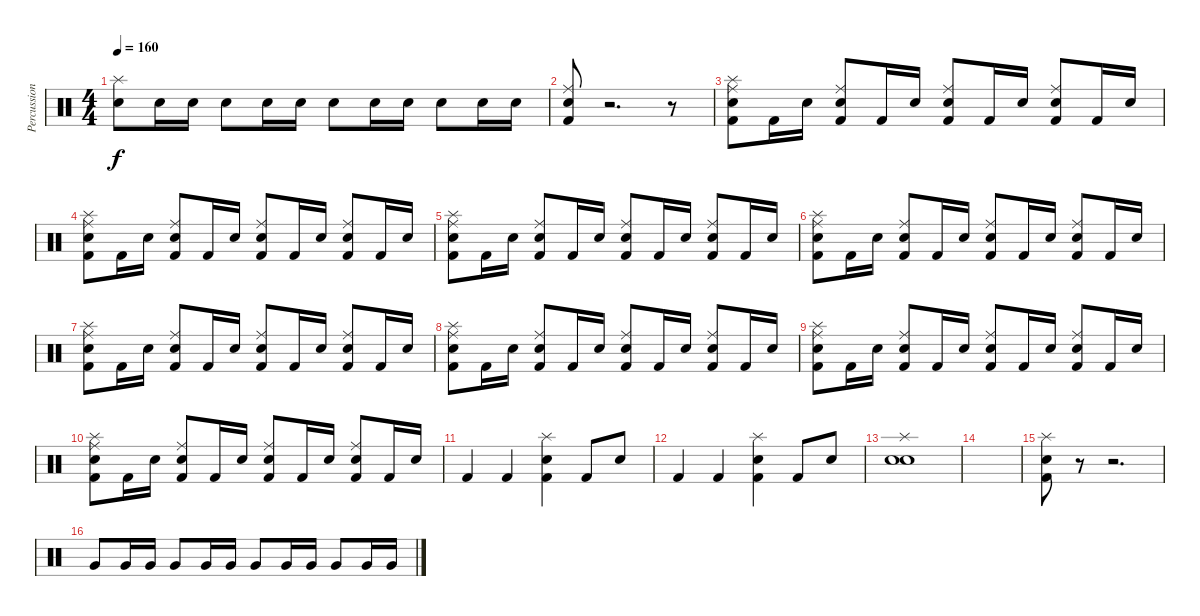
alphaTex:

\track ("Percussions" "Percussion") {instrument percussion}
\staff {score}
\articulation defaults
\ts (4 4)
\tempo 160
\clef neutral
\ks c
("Splash (hit)" "Electric Snare (hit)").8{dy f} "Electric Snare (hit)".16 "Electric Snare (hit)".16 "Electric Snare (hit)".8 "Electric Snare (hit)".16 "Electric Snare (hit)".16 "Electric Snare (hit)".8 "Electric Snare (hit)".16 "Electric Snare (hit)".16 "Electric Snare (hit)".8 "Electric Snare (hit)".16 "Electric Snare (hit)".16 |
("Ride (middle)" "Kick (hit) 2" "Electric Snare (hit)").8 r.2{d} r.8 |
("Ride (middle)" "Splash (hit)" "Electric Snare (hit)" "Kick (hit) 2").8 "Kick (hit) 2".16 "Electric Snare (hit)".16 ("Kick (hit) 2" "Ride (middle)" "Electric Snare (hit)").8 "Kick (hit) 2".16 "Electric Snare (hit)".16 ("Kick (hit) 2" "Ride (middle)" "Electric Snare (hit)").8 "Kick (hit) 2".16 "Electric Snare (hit)".16 ("Electric Snare (hit)" "Ride (middle)" "Kick (hit) 2").8 "Kick (hit) 2".16 "Electric Snare (hit)".16 |
("Ride (middle)" "Splash (hit)" "Electric Snare (hit)" "Kick (hit) 2").8 "Kick (hit) 2".16 "Electric Snare (hit)".16 ("Kick (hit) 2" "Ride (middle)" "Electric Snare (hit)").8 "Kick (hit) 2".16 "Electric Snare (hit)".16 ("Kick (hit) 2" "Ride (middle)" "Electric Snare (hit)").8 "Kick (hit) 2".16 "Electric Snare (hit)".16 ("Electric Snare (hit)" "Ride (middle)" "Kick (hit) 2").8 "Kick (hit) 2".16 "Electric Snare (hit)".16 |
("Ride (middle)" "Splash (hit)" "Electric Snare (hit)" "Kick (hit) 2").8 "Kick (hit) 2".16 "Electric Snare (hit)".16 ("Kick (hit) 2" "Ride (middle)" "Electric Snare (hit)").8 "Kick (hit) 2".16 "Electric Snare (hit)".16 ("Kick (hit) 2" "Ride (middle)" "Electric Snare (hit)").8 "Kick (hit) 2".16 "Electric Snare (hit)".16 ("Electric Snare (hit)" "Ride (middle)" "Kick (hit) 2").8 "Kick (hit) 2".16 "Electric Snare (hit)".16 |
("Ride (middle)" "Splash (hit)" "Electric Snare (hit)" "Kick (hit) 2").8 "Kick (hit) 2".16 "Electric Snare (hit)".16 ("Kick (hit) 2" "Ride (middle)" "Electric Snare (hit)").8 "Kick (hit) 2".16 "Electric Snare (hit)".16 ("Kick (hit) 2" "Ride (middle)" "Electric Snare (hit)").8 "Kick (hit) 2".16 "Electric Snare (hit)".16 ("Electric Snare (hit)" "Ride (middle)" "Kick (hit) 2").8 "Kick (hit) 2".16 "Electric Snare (hit)".16 |
("Ride (middle)" "Splash (hit)" "Electric Snare (hit)" "Kick (hit) 2").8 "Kick (hit) 2".16 "Electric Snare (hit)".16 ("Kick (hit) 2" "Ride (middle)" "Electric Snare (hit)").8 "Kick (hit) 2".16 "Electric Snare (hit)".16 ("Kick (hit) 2" "Ride (middle)" "Electric Snare (hit)").8 "Kick (hit) 2".16 "Electric Snare (hit)".16 ("Electric Snare (hit)" "Ride (middle)" "Kick (hit) 2").8 "Kick (hit) 2".16 "Electric Snare (hit)".16 |
("Ride (middle)" "Splash (hit)" "Electric Snare (hit)" "Kick (hit) 2").8 "Kick (hit) 2".16 "Electric Snare (hit)".16 ("Kick (hit) 2" "Ride (middle)" "Electric Snare (hit)").8 "Kick (hit) 2".16 "Electric Snare (hit)".16 ("Kick (hit) 2" "Ride (middle)" "Electric Snare (hit)").8 "Kick (hit) 2".16 "Electric Snare (hit)".16 ("Electric Snare (hit)" "Ride (middle)" "Kick (hit) 2").8 "Kick (hit) 2".16 "Electric Snare (hit)".16 |
("Ride (middle)" "Splash (hit)" "Electric Snare (hit)" "Kick (hit) 2").8 "Kick (hit) 2".16 "Electric Snare (hit)".16 ("Kick (hit) 2" "Ride (middle)" "Electric Snare (hit)").8 "Kick (hit) 2".16 "Electric Snare (hit)".16 ("Kick (hit) 2" "Ride (middle)" "Electric Snare (hit)").8 "Kick (hit) 2".16 "Electric Snare (hit)".16 ("Electric Snare (hit)" "Ride (middle)" "Kick (hit) 2").8 "Kick (hit) 2".16 "Electric Snare (hit)".16 |
("Ride (middle)" "Splash (hit)" "Electric Snare (hit)" "Kick (hit) 2").8 "Kick (hit) 2".16 "Electric Snare (hit)".16 ("Kick (hit) 2" "Ride (middle)" "Electric Snare (hit)").8 "Kick (hit) 2".16 "Electric Snare (hit)".16 ("Kick (hit) 2" "Ride (middle)" "Electric Snare (hit)").8 "Kick (hit) 2".16 "Electric Snare (hit)".16 ("Electric Snare (hit)" "Ride (middle)" "Kick (hit) 2").8 "Kick (hit) 2".16 "Electric Snare (hit)".16 |
"Kick (hit) 2".4 "Kick (hit) 2".4 ("Kick (hit) 2" "Splash (hit)" "Electric Snare (hit)").4 "Kick (hit) 2".8 "Electric Snare (hit)".8 |
"Kick (hit) 2".4 "Kick (hit) 2".4 ("Splash (hit)" "Electric Snare (hit)" "Kick (hit) 2").4 "Kick (hit) 2".8 "Electric Snare (hit)".8 |
("Snare (hit) 2" "Splash (hit)" "Electric Snare (hit)").1 |
|
("Splash (hit)" "Kick (hit) 2" "Electric Snare (hit)").8 r.8 r.2{d} |
"Very Low Tom (hit)".8 "Very Low Tom (hit)".16 "Very Low Tom (hit)".16 "Very Low Tom (hit)".8 "Very Low Tom (hit)".16 "Very Low Tom (hit)".16 "Very Low Tom (hit)".8 "Very Low Tom (hit)".16 "Very Low Tom (hit)".16 "Very Low Tom (hit)".8 "Very Low Tom (hit)".16 "Very Low Tom (hit)".16
